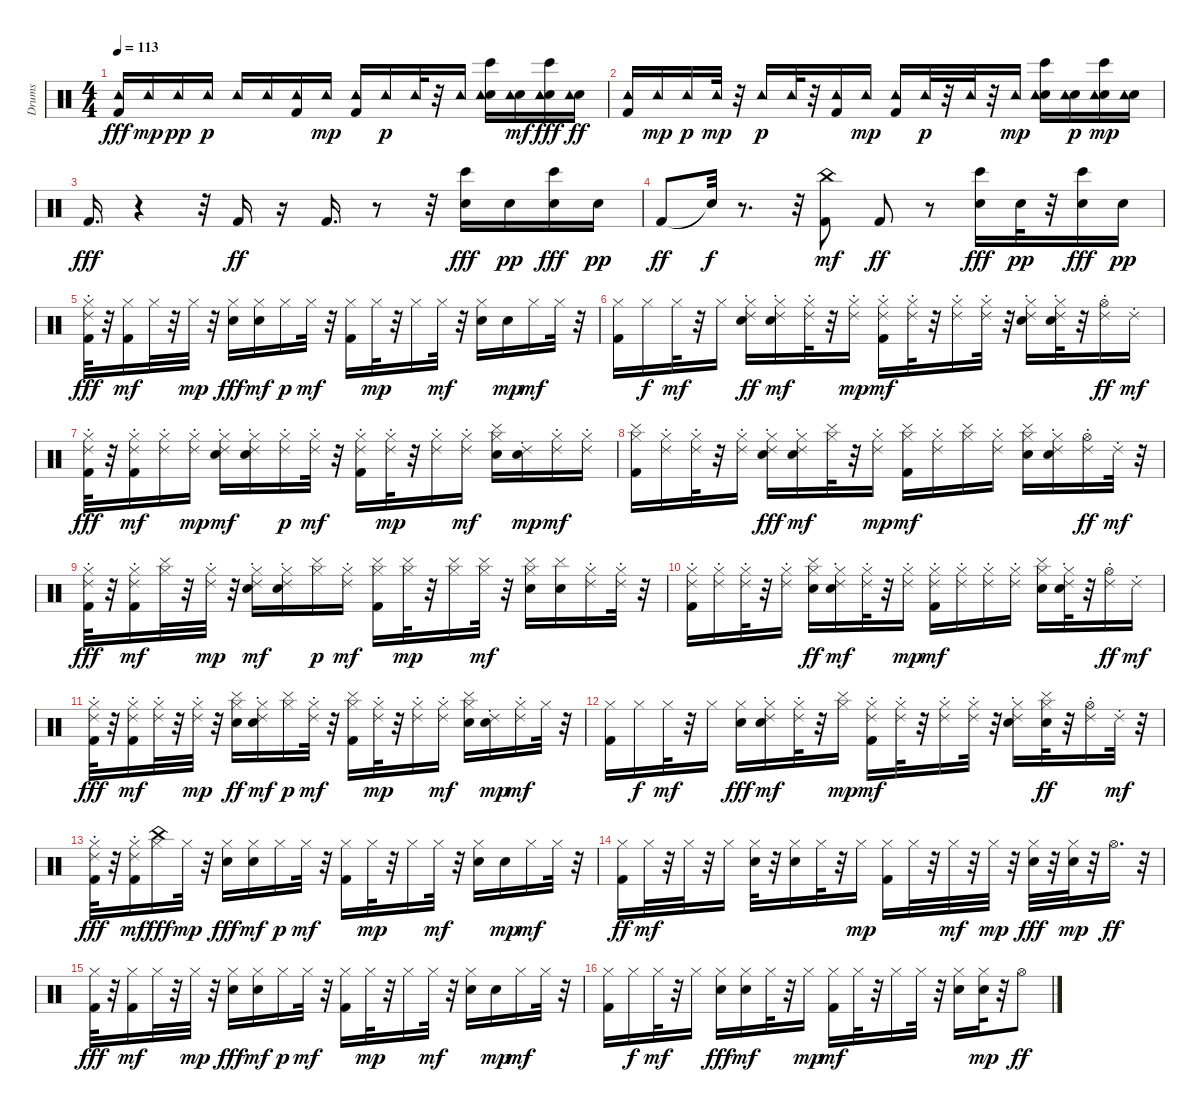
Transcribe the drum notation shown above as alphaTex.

\track ("Drums" "Drums") {instrument percussion}
\staff {score}
\articulation defaults
\ts (4 4)
\tempo 113
\clef neutral
\ks c
("Kick (hit) 2" "Tambourine (hit)").16{dy fff} "Tambourine (hit)".16{dy mp} "Tambourine (hit)".16{dy pp} "Tambourine (hit)".16{dy p} "Tambourine (hit)".16 "Tambourine (hit)".16 ("Kick (hit) 2" "Tambourine (hit)").16 "Tambourine (hit)".16{dy mp} ("Kick (hit) 2" "Tambourine (hit)").16 "Tambourine (hit)".16{dy p} "Tambourine (hit)".32 r.32 "Tambourine (hit)".16 ("Electric Snare (hit)" "Bongo High (hit)" "Tambourine (hit)").16 ("Electric Snare (hit)" "Tambourine (hit)").16{dy mf} ("Electric Snare (hit)" "Bongo High (hit)" "Tambourine (hit)").16{dy fff} ("Electric Snare (hit)" "Tambourine (hit)").16{dy ff} |
("Kick (hit) 2" "Tambourine (hit)").16 "Tambourine (hit)".16{dy mp} "Tambourine (hit)".16{dy p} "Tambourine (hit)".32{dy mp} r.32 "Tambourine (hit)".16{dy p} "Tambourine (hit)".32 r.32 ("Kick (hit) 2" "Tambourine (hit)").16 "Tambourine (hit)".16{dy mp} ("Kick (hit) 2" "Tambourine (hit)").16 "Tambourine (hit)".32{dy p} r.32 "Tambourine (hit)".32 r.32 "Tambourine (hit)".16{dy mp} ("Electric Snare (hit)" "Bongo High (hit)" "Tambourine (hit)").16 ("Electric Snare (hit)" "Tambourine (hit)").16{dy p} ("Electric Snare (hit)" "Bongo High (hit)" "Tambourine (hit)").16{dy mp} ("Electric Snare (hit)" "Tambourine (hit)").16 |
"Kick (hit) 2".16{d dy fff} r.4 r.32 "Kick (hit) 2".16{dy ff} r.16 "Kick (hit) 2".16{d} r.8 r.32 ("Electric Snare (hit)" "Bongo High (hit)").16{dy fff} "Electric Snare (hit)".16{dy pp} ("Electric Snare (hit)" "Bongo High (hit)").16{dy fff} "Electric Snare (hit)".16{dy pp} |
"Kick (hit) 2".8{dy ff} "Snare (hit)"{t}.32{dy f} r.8{d} r.32 ("Kick (hit) 2" "China (hit)").8{dy mf} "Kick (hit) 2".8{dy ff} r.8 ("Electric Snare (hit)" "Bongo High (hit)").16{dy fff} "Electric Snare (hit)".32{dy pp} r.32 ("Electric Snare (hit)" "Bongo High (hit)").16{dy fff} "Electric Snare (hit)".16{dy pp} |
("Ride (choke) 2" "Kick (hit) 2" "Hi-Hat (closed)").32{dy fff} r.32 ("Kick (hit) 2" "Hi-Hat (closed)").16{dy mf} "Hi-Hat (closed)".32 r.32 "Hi-Hat (closed)".32{dy mp} r.32 ("Electric Snare (hit)" "Hi-Hat (closed)").16{dy fff} ("Electric Snare (hit)" "Hi-Hat (closed)").16{dy mf} "Hi-Hat (closed)".16{dy p} "Hi-Hat (closed)".32{dy mf} r.32 ("Kick (hit) 2" "Hi-Hat (closed)").16 "Hi-Hat (closed)".32{dy mp} r.32 "Hi-Hat (closed)".16 "Hi-Hat (closed)".32{dy mf} r.32 ("Electric Snare (hit)" "Hi-Hat (closed)").16 "Electric Snare (hit)".16{dy mp} "Hi-Hat (closed)".16{dy mf} "Hi-Hat (closed)".32 r.32 |
("Kick (hit) 2" "Hi-Hat (closed)").16 "Hi-Hat (closed)".16{dy f} "Hi-Hat (closed)".32{dy mf} r.32 "Hi-Hat (closed)".16 ("Electric Snare (hit)" "Ride (choke) 2" "Hi-Hat (closed)").16{dy ff} ("Electric Snare (hit)" "Ride (choke) 2" "Hi-Hat (closed)").16{dy mf} ("Ride (choke) 2" "Hi-Hat (closed)").32 r.32 ("Ride (choke) 2" "Hi-Hat (closed)").16{dy mp} ("Ride (choke) 2" "Kick (hit) 2" "Hi-Hat (closed)").16{dy mf} ("Ride (choke) 2" "Hi-Hat (closed)").32 r.32 ("Ride (choke) 2" "Hi-Hat (closed)").16 ("Ride (choke) 2" "Hi-Hat (closed)").32 r.32 ("Electric Snare (hit)" "Ride (choke) 2" "Hi-Hat (closed)").16 ("Electric Snare (hit)" "Ride (choke) 2" "Hi-Hat (closed)").32 r.32 ("Ride (choke) 2" "Hi-Hat (open)").16{dy ff} "Ride (choke) 2".16{dy mf} |
("Ride (choke) 2" "Kick (hit) 2" "Hi-Hat (closed)").32{dy fff} r.32 ("Ride (choke) 2" "Kick (hit) 2" "Hi-Hat (closed)").16{dy mf} ("Ride (choke) 2" "Hi-Hat (closed)").16 ("Ride (choke) 2" "Hi-Hat (closed)").16{dy mp} ("Electric Snare (hit)" "Ride (choke) 2" "Hi-Hat (closed)").16{dy mf} ("Electric Snare (hit)" "Ride (choke) 2" "Hi-Hat (closed)").16 ("Ride (choke) 2" "Hi-Hat (closed)").16{dy p} ("Ride (choke) 2" "Hi-Hat (closed)").32{dy mf} r.32 ("Ride (choke) 2" "Kick (hit) 2" "Hi-Hat (closed)").16 ("Ride (choke) 2" "Hi-Hat (closed)").32{dy mp} r.32 ("Ride (choke) 2" "Hi-Hat (closed)").16 ("Ride (choke) 2" "Hi-Hat (closed)").16{dy mf} ("Electric Snare (hit)" "Cymbal (hit)" "Hi-Hat (closed)").16 ("Electric Snare (hit)" "Ride (choke) 2").16{dy mp} ("Ride (choke) 2" "Hi-Hat (closed)").16{dy mf} ("Ride (choke) 2" "Hi-Hat (closed)").16 |
("Cymbal (hit)" "Kick (hit) 2" "Hi-Hat (closed)").16 ("Ride (choke) 2" "Hi-Hat (closed)").16 ("Ride (choke) 2" "Hi-Hat (closed)").32 r.32 ("Ride (choke) 2" "Hi-Hat (closed)").16 ("Electric Snare (hit)" "Ride (choke) 2" "Hi-Hat (closed)").16{dy fff} ("Electric Snare (hit)" "Ride (choke) 2" "Hi-Hat (closed)").16{dy mf} ("Cymbal (hit)" "Hi-Hat (closed)").32 r.32 ("Ride (choke) 2" "Hi-Hat (closed)").16{dy mp} ("Cymbal (hit)" "Kick (hit) 2" "Hi-Hat (closed)").16{dy mf} ("Ride (choke) 2" "Hi-Hat (closed)").16 ("Cymbal (hit)" "Hi-Hat (closed)").16 ("Ride (choke) 2" "Hi-Hat (closed)").16 ("Electric Snare (hit)" "Cymbal (hit)" "Hi-Hat (closed)").16 ("Electric Snare (hit)" "Ride (choke) 2" "Hi-Hat (closed)").16 ("Ride (choke) 2" "Hi-Hat (open)").16{dy ff} "Ride (choke) 2".32{dy mf} r.32 |
("Ride (choke) 2" "Kick (hit) 2" "Hi-Hat (closed)").32{dy fff} r.32 ("Ride (choke) 2" "Kick (hit) 2" "Hi-Hat (closed)").16{dy mf} ("Cymbal (hit)" "Hi-Hat (closed)").32 r.32 ("Ride (choke) 2" "Hi-Hat (closed)").32{dy mp} r.32 ("Electric Snare (hit)" "Ride (choke) 2" "Hi-Hat (closed)").16{dy mf} ("Electric Snare (hit)" "Ride (choke) 2" "Hi-Hat (closed)").16 ("Cymbal (hit)" "Hi-Hat (closed)").16{dy p} ("Ride (choke) 2" "Hi-Hat (closed)").16{dy mf} ("Cymbal (hit)" "Kick (hit) 2" "Hi-Hat (closed)").16 ("Cymbal (hit)" "Hi-Hat (closed)").32{dy mp} r.32 ("Cymbal (hit)" "Hi-Hat (closed)").16 ("Cymbal (hit)" "Hi-Hat (closed)").32{dy mf} r.32 ("Electric Snare (hit)" "Cymbal (hit)" "Hi-Hat (closed)").16 ("Electric Snare (hit)" "Cymbal (hit)").16 ("Ride (choke) 2" "Hi-Hat (closed)").16 ("Ride (choke) 2" "Hi-Hat (closed)").32 r.32 |
("Ride (choke) 2" "Kick (hit) 2" "Hi-Hat (closed)").16 ("Ride (choke) 2" "Hi-Hat (closed)").16 ("Ride (choke) 2" "Hi-Hat (closed)").32 r.32 ("Ride (choke) 2" "Hi-Hat (closed)").16 ("Electric Snare (hit)" "Cymbal (hit)" "Hi-Hat (closed)").16{dy ff} ("Electric Snare (hit)" "Ride (choke) 2" "Hi-Hat (closed)").16{dy mf} ("Ride (choke) 2" "Hi-Hat (closed)").32 r.32 ("Ride (choke) 2" "Hi-Hat (closed)").16{dy mp} ("Ride (choke) 2" "Kick (hit) 2" "Hi-Hat (closed)").16{dy mf} ("Ride (choke) 2" "Hi-Hat (closed)").16 ("Ride (choke) 2" "Hi-Hat (closed)").16 ("Ride (choke) 2" "Hi-Hat (closed)").16 ("Electric Snare (hit)" "Cymbal (hit)" "Hi-Hat (closed)").16 ("Electric Snare (hit)" "Ride (choke) 2" "Hi-Hat (closed)").32 r.32 ("Ride (choke) 2" "Hi-Hat (open)").16{dy ff} "Ride (choke) 2".16{dy mf} |
("Ride (choke) 2" "Kick (hit) 2" "Hi-Hat (closed)").32{dy fff} r.32 ("Ride (choke) 2" "Kick (hit) 2" "Hi-Hat (closed)").16{dy mf} ("Ride (choke) 2" "Hi-Hat (closed)").32 r.32 ("Ride (choke) 2" "Hi-Hat (closed)").32{dy mp} r.32 ("Electric Snare (hit)" "Cymbal (hit)" "Hi-Hat (closed)").16{dy ff} ("Electric Snare (hit)" "Ride (choke) 2" "Hi-Hat (closed)").16{dy mf} ("Cymbal (hit)" "Hi-Hat (closed)").16{dy p} ("Ride (choke) 2" "Hi-Hat (closed)").32{dy mf} r.32 ("Cymbal (hit)" "Kick (hit) 2" "Hi-Hat (closed)").16 ("Ride (choke) 2" "Hi-Hat (closed)").32{dy mp} r.32 ("Ride (choke) 2" "Hi-Hat (closed)").16 ("Ride (choke) 2" "Hi-Hat (closed)").16{dy mf} ("Electric Snare (hit)" "Cymbal (hit)" "Hi-Hat (closed)").16 ("Electric Snare (hit)" "Ride (choke) 2").16{dy mp} ("Ride (choke) 2" "Hi-Hat (closed)").16{dy mf} "Hi-Hat (closed)".32 r.32 |
("Kick (hit) 2" "Hi-Hat (closed)").16 "Hi-Hat (closed)".16{dy f} "Hi-Hat (closed)".32{dy mf} r.32 "Hi-Hat (closed)".16 ("Electric Snare (hit)" "Hi-Hat (closed)").16{dy fff} ("Electric Snare (hit)" "Ride (choke) 2" "Hi-Hat (closed)").16{dy mf} ("Ride (choke) 2" "Hi-Hat (closed)").32 r.32 ("Cymbal (hit)" "Hi-Hat (closed)").16{dy mp} ("Ride (choke) 2" "Kick (hit) 2" "Hi-Hat (closed)").16{dy mf} ("Ride (choke) 2" "Hi-Hat (closed)").32 r.32 ("Ride (choke) 2" "Hi-Hat (closed)").16 ("Ride (choke) 2" "Hi-Hat (closed)").32 r.32 ("Electric Snare (hit)" "Ride (choke) 2" "Hi-Hat (closed)").16 ("Electric Snare (hit)" "Cymbal (hit)" "Hi-Hat (closed)").32{dy ff} r.32 ("Ride (choke) 2" "Hi-Hat (open)").16 "Ride (choke) 2".32{dy mf} r.32 |
("Ride (choke) 2" "Kick (hit) 2" "Hi-Hat (closed)").32{dy fff} r.32 ("Ride (choke) 2" "Kick (hit) 2" "Hi-Hat (closed)").16{dy mf} ("Hi-Hat (closed)" "China (hit)").16{dy fff} "Hi-Hat (closed)".32{dy mp} r.32 ("Electric Snare (hit)" "Hi-Hat (closed)").16{dy fff} ("Electric Snare (hit)" "Hi-Hat (closed)").16{dy mf} "Hi-Hat (closed)".16{dy p} "Hi-Hat (closed)".32{dy mf} r.32 ("Kick (hit) 2" "Hi-Hat (closed)").16 "Hi-Hat (closed)".32{dy mp} r.32 "Hi-Hat (closed)".16 "Hi-Hat (closed)".32{dy mf} r.32 ("Electric Snare (hit)" "Hi-Hat (closed)").16 "Electric Snare (hit)".16{dy mp} "Hi-Hat (closed)".16{dy mf} "Hi-Hat (closed)".32 r.32 |
("Kick (hit) 2" "Hi-Hat (closed)").16{dy ff} "Hi-Hat (closed)".32{dy mf} r.32 "Hi-Hat (closed)".32 r.32 "Hi-Hat (closed)".16 ("Electric Snare (hit)" "Hi-Hat (closed)").32 r.32 ("Electric Snare (hit)" "Hi-Hat (closed)").16 "Hi-Hat (closed)".32 r.32 "Hi-Hat (closed)".16{dy mp} ("Kick (hit) 2" "Hi-Hat (closed)").16 "Hi-Hat (closed)".32 r.32 "Hi-Hat (closed)".32{dy mf} r.32 "Hi-Hat (closed)".32{dy mp} r.32 ("Electric Snare (hit)" "Hi-Hat (closed)").32{dy fff} r.32 ("Electric Snare (hit)" "Hi-Hat (closed)").32{dy mp} r.32 "Hi-Hat (open)".16{d dy ff} r.32 |
("Kick (hit) 2" "Hi-Hat (closed)").32{dy fff} r.32 ("Kick (hit) 2" "Hi-Hat (closed)").16{dy mf} "Hi-Hat (closed)".32 r.32 "Hi-Hat (closed)".32{dy mp} r.32 ("Electric Snare (hit)" "Hi-Hat (closed)").16{dy fff} ("Electric Snare (hit)" "Hi-Hat (closed)").16{dy mf} "Hi-Hat (closed)".16{dy p} "Hi-Hat (closed)".32{dy mf} r.32 ("Kick (hit) 2" "Hi-Hat (closed)").16 "Hi-Hat (closed)".32{dy mp} r.32 "Hi-Hat (closed)".16 "Hi-Hat (closed)".32{dy mf} r.32 ("Electric Snare (hit)" "Hi-Hat (closed)").16 "Electric Snare (hit)".16{dy mp} "Hi-Hat (closed)".16{dy mf} "Hi-Hat (closed)".32 r.32 |
("Kick (hit) 2" "Hi-Hat (closed)").16 "Hi-Hat (closed)".16{dy f} "Hi-Hat (closed)".32{dy mf} r.32 "Hi-Hat (closed)".16 ("Electric Snare (hit)" "Hi-Hat (closed)").16{dy fff} ("Electric Snare (hit)" "Hi-Hat (closed)").16{dy mf} "Hi-Hat (closed)".32 r.32 "Hi-Hat (closed)".16{dy mp} ("Kick (hit) 2" "Hi-Hat (closed)").16{dy mf} "Hi-Hat (closed)".32 r.32 "Hi-Hat (closed)".16 "Hi-Hat (closed)".32 r.32 ("Electric Snare (hit)" "Hi-Hat (closed)").16 ("Electric Snare (hit)" "Hi-Hat (closed)").32{dy mp} r.32 "Hi-Hat (open)".8{dy ff}
